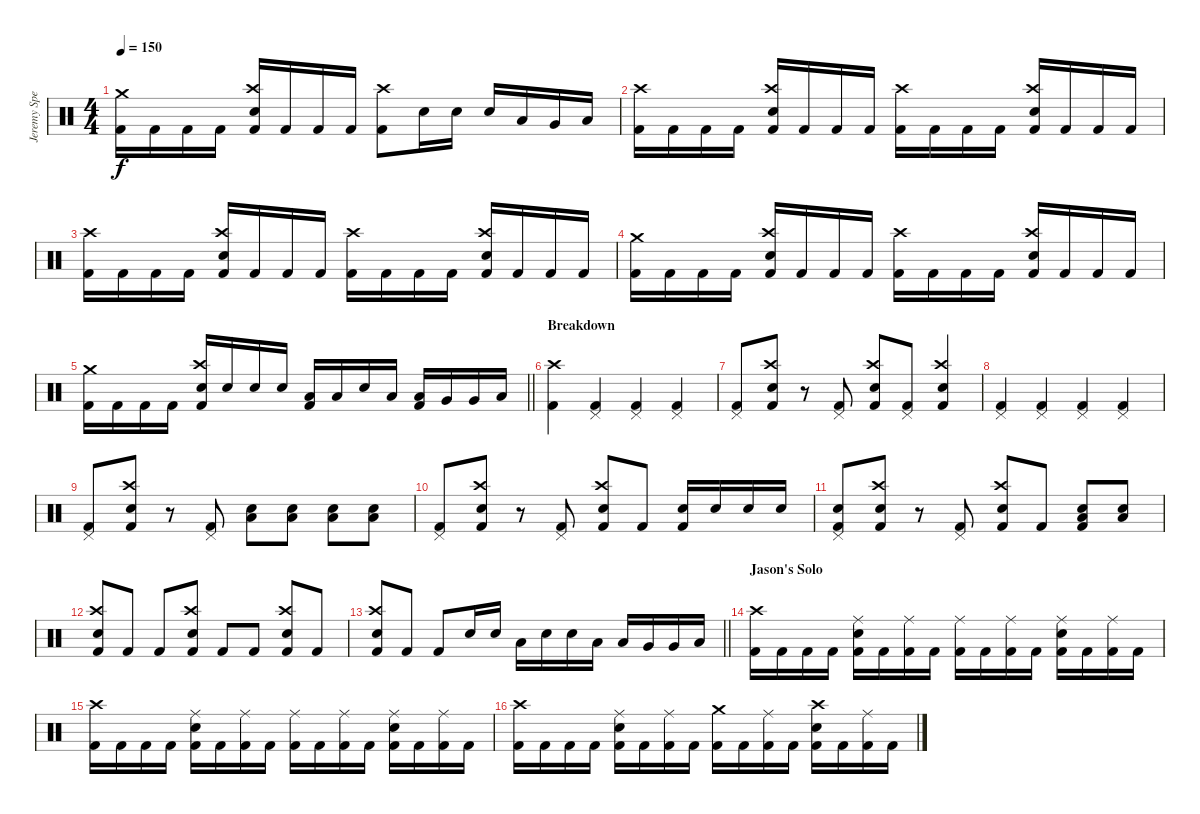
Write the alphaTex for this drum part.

\track ("Jeremy Spencer – Drums" "Jeremy Spe") {instrument percussion}
\staff {score}
\articulation defaults
\ts (4 4)
\tempo 150
\clef neutral
\ks c
("Crash medium (hit)" "Kick (hit) 2").16{dy f} "Kick (hit) 2".16 "Kick (hit) 2".16 "Kick (hit) 2".16 ("Crash high (hit)" "Snare (hit) 2" "Kick (hit) 2").16 "Kick (hit) 2".16 "Kick (hit) 2".16 "Kick (hit) 2".16 ("Crash high (hit)" "Kick (hit) 2").8 "Snare (hit) 2".16 "Snare (hit) 2".16 "Snare (hit) 2".16 "Low Tom (hit)".16 "Very Low Tom (hit)".16 "Low Floor Tom (hit)".16 |
("Crash high (hit)" "Kick (hit) 2").16 "Kick (hit) 2".16 "Kick (hit) 2".16 "Kick (hit) 2".16 ("Crash high (hit)" "Snare (hit) 2" "Kick (hit) 2").16 "Kick (hit) 2".16 "Kick (hit) 2".16 "Kick (hit) 2".16 ("Crash high (hit)" "Kick (hit) 2").16 "Kick (hit) 2".16 "Kick (hit) 2".16 "Kick (hit) 2".16 ("Crash high (hit)" "Snare (hit) 2" "Kick (hit) 2").16 "Kick (hit) 2".16 "Kick (hit) 2".16 "Kick (hit) 2".16 |
("Crash high (hit)" "Kick (hit) 2").16 "Kick (hit) 2".16 "Kick (hit) 2".16 "Kick (hit) 2".16 ("Crash high (hit)" "Snare (hit) 2" "Kick (hit) 2").16 "Kick (hit) 2".16 "Kick (hit) 2".16 "Kick (hit) 2".16 ("Crash high (hit)" "Kick (hit) 2").16 "Kick (hit) 2".16 "Kick (hit) 2".16 "Kick (hit) 2".16 ("Crash high (hit)" "Snare (hit) 2" "Kick (hit) 2").16 "Kick (hit) 2".16 "Kick (hit) 2".16 "Kick (hit) 2".16 |
("Crash medium (hit)" "Kick (hit) 2").16 "Kick (hit) 2".16 "Kick (hit) 2".16 "Kick (hit) 2".16 ("Crash high (hit)" "Snare (hit) 2" "Kick (hit) 2").16 "Kick (hit) 2".16 "Kick (hit) 2".16 "Kick (hit) 2".16 ("Crash high (hit)" "Kick (hit) 2").16 "Kick (hit) 2".16 "Kick (hit) 2".16 "Kick (hit) 2".16 ("Crash high (hit)" "Snare (hit) 2" "Kick (hit) 2").16 "Kick (hit) 2".16 "Kick (hit) 2".16 "Kick (hit) 2".16 |
\barLineRight lightlight
("Crash medium (hit)" "Kick (hit) 2").16 "Kick (hit) 2".16 "Kick (hit) 2".16 "Kick (hit) 2".16 ("Crash high (hit)" "Snare (hit) 2" "Kick (hit) 2").16 "Snare (hit) 2".16 "Snare (hit) 2".16 "Snare (hit) 2".16 ("Low Tom (hit)" "Kick (hit) 2").16 "Low Tom (hit)".16 "Snare (hit) 2".16 "Low Tom (hit)".16 ("Low Tom (hit)" "Kick (hit) 2").16 "Very Low Tom (hit)".16 "Very Low Tom (hit)".16 "Low Floor Tom (hit)".16 |
\section ("" "Breakdown")
("Crash high (hit)" "Kick (hit) 2").4 ("Pedal Hi-Hat (hit)" "Kick (hit) 2").4 ("Pedal Hi-Hat (hit)" "Kick (hit) 2").4 ("Pedal Hi-Hat (hit)" "Kick (hit) 2").4 |
("Pedal Hi-Hat (hit)" "Kick (hit) 2").8 ("Crash high (hit)" "Snare (hit) 2" "Kick (hit) 2").8 r.8 ("Pedal Hi-Hat (hit)" "Kick (hit) 2").8 ("Crash high (hit)" "Snare (hit) 2" "Kick (hit) 2").8 ("Pedal Hi-Hat (hit)" "Kick (hit) 2").8 ("Crash high (hit)" "Snare (hit) 2" "Kick (hit) 2").4 |
("Pedal Hi-Hat (hit)" "Kick (hit) 2").4 ("Pedal Hi-Hat (hit)" "Kick (hit) 2").4 ("Pedal Hi-Hat (hit)" "Kick (hit) 2").4 ("Pedal Hi-Hat (hit)" "Kick (hit) 2").4 |
("Pedal Hi-Hat (hit)" "Kick (hit) 2").8 ("Crash high (hit)" "Snare (hit) 2" "Kick (hit) 2").8 r.8 ("Pedal Hi-Hat (hit)" "Kick (hit) 2").8 ("Low Floor Tom (hit)" "Snare (hit) 2").8 ("Low Floor Tom (hit)" "Snare (hit) 2").8 ("Low Floor Tom (hit)" "Snare (hit) 2").8 ("Low Floor Tom (hit)" "Snare (hit) 2").8 |
("Pedal Hi-Hat (hit)" "Kick (hit) 2").8 ("Crash high (hit)" "Snare (hit) 2" "Kick (hit) 2").8 r.8 ("Pedal Hi-Hat (hit)" "Kick (hit) 2").8 ("Crash high (hit)" "Snare (hit) 2" "Kick (hit) 2").8 "Kick (hit) 2".8 ("Snare (hit) 2" "Kick (hit) 2").16 "Snare (hit) 2".16 "Snare (hit) 2".16 "Snare (hit) 2".16 |
("Pedal Hi-Hat (hit)" "Snare (hit)" "Kick (hit) 2").8 ("Crash high (hit)" "Snare (hit) 2" "Kick (hit) 2").8 r.8 ("Pedal Hi-Hat (hit)" "Kick (hit) 2").8 ("Crash high (hit)" "Snare (hit) 2" "Kick (hit) 2").8 "Kick (hit) 2".8 ("Snare (hit) 2" "Low Floor Tom (hit)" "Kick (hit) 2").8 ("Snare (hit) 2" "Low Floor Tom (hit)").8 |
("Crash high (hit)" "Snare (hit) 2" "Kick (hit) 2").8 "Kick (hit) 2".8 "Kick (hit) 2".8 ("Crash high (hit)" "Snare (hit) 2" "Kick (hit) 2").8 "Kick (hit) 2".8 "Kick (hit) 2".8 ("Crash high (hit)" "Snare (hit) 2" "Kick (hit) 2").8 "Kick (hit) 2".8 |
\barLineRight lightlight
("Crash high (hit)" "Snare (hit) 2" "Kick (hit) 2").8 "Kick (hit) 2".8 "Kick (hit) 2".8 "Snare (hit) 2".16 "Snare (hit) 2".16 "Low Tom (hit)".16 "Snare (hit) 2".16 "Snare (hit) 2".16 "Low Tom (hit)".16 "Low Tom (hit)".16 "Very Low Tom (hit)".16 "Very Low Tom (hit)".16 "Low Floor Tom (hit)".16 |
\section ("" "Jason's Solo")
("Crash high (hit)" "Kick (hit) 2").16 "Kick (hit) 2".16 "Kick (hit) 2".16 "Kick (hit) 2".16 ("Ride (middle)" "Snare (hit) 2" "Kick (hit) 2").16 "Kick (hit) 2".16 ("Ride (middle)" "Kick (hit) 2").16 "Kick (hit) 2".16 ("Ride (middle)" "Kick (hit) 2").16 "Kick (hit) 2".16 ("Ride (middle)" "Kick (hit) 2").16 "Kick (hit) 2".16 ("Ride (middle)" "Snare (hit) 2" "Kick (hit) 2").16 "Kick (hit) 2".16 ("Ride (middle)" "Kick (hit) 2").16 "Kick (hit) 2".16 |
("Crash high (hit)" "Kick (hit) 2").16 "Kick (hit) 2".16 "Kick (hit) 2".16 "Kick (hit) 2".16 ("Ride (middle)" "Snare (hit) 2" "Kick (hit) 2").16 "Kick (hit) 2".16 ("Ride (middle)" "Kick (hit) 2").16 "Kick (hit) 2".16 ("Ride (middle)" "Kick (hit) 2").16 "Kick (hit) 2".16 ("Ride (middle)" "Kick (hit) 2").16 "Kick (hit) 2".16 ("Ride (middle)" "Snare (hit) 2" "Kick (hit) 2").16 "Kick (hit) 2".16 ("Ride (middle)" "Kick (hit) 2").16 "Kick (hit) 2".16 |
("Crash high (hit)" "Kick (hit) 2").16 "Kick (hit) 2".16 "Kick (hit) 2".16 "Kick (hit) 2".16 ("Ride (middle)" "Snare (hit) 2" "Kick (hit) 2").16 "Kick (hit) 2".16 ("Ride (middle)" "Kick (hit) 2").16 "Kick (hit) 2".16 ("Crash medium (hit)" "Kick (hit) 2").16 "Kick (hit) 2".16 ("Ride (middle)" "Kick (hit) 2").16 "Kick (hit) 2".16 ("Crash high (hit)" "Snare (hit) 2" "Kick (hit) 2").16 "Kick (hit) 2".16 ("Ride (middle)" "Kick (hit) 2").16 "Kick (hit) 2".16
